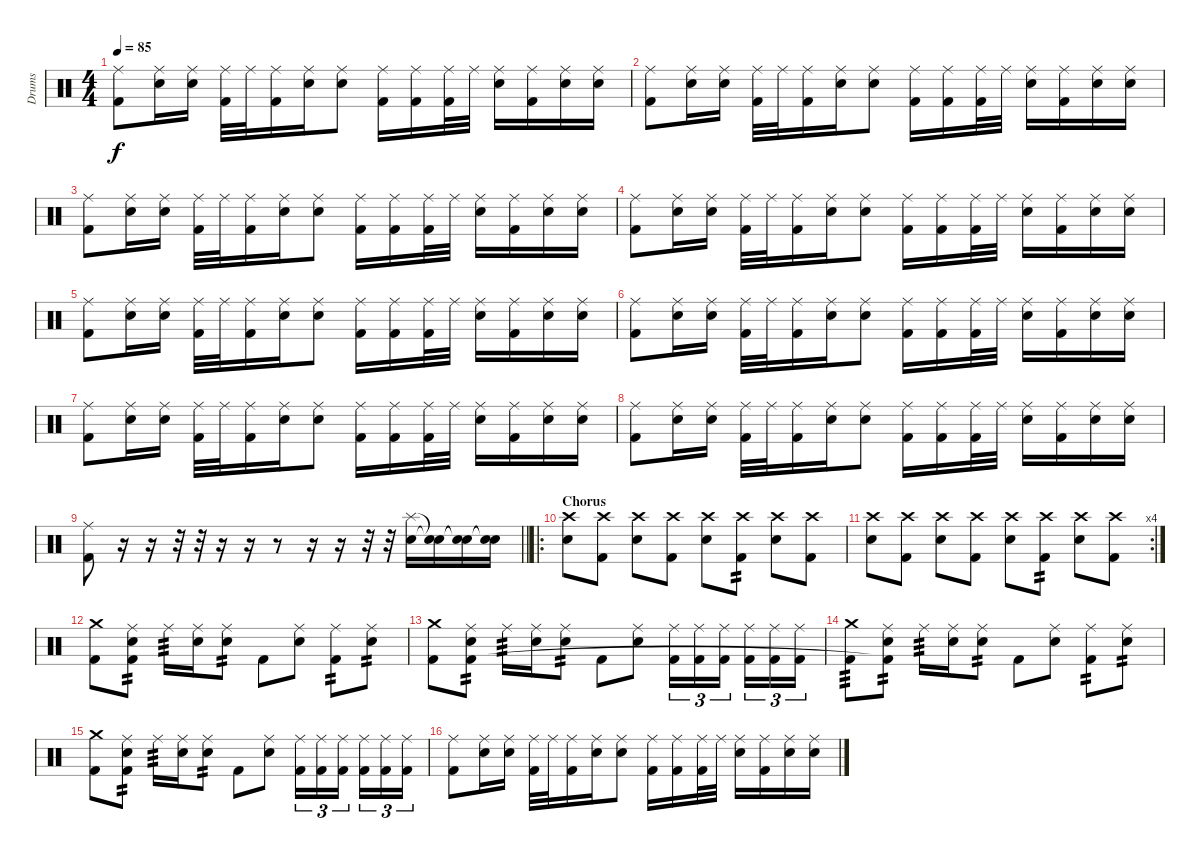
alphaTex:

\track ("Drums" "Drums") {instrument percussion}
\staff {score}
\articulation defaults
\ts (4 4)
\tempo 85
\clef neutral
\ks c
("Ride (middle)" "Kick (hit) 2").8{dy f} ("Ride (middle)" "Electric Snare (hit)").16 ("Ride (middle)" "Electric Snare (hit)").16 ("Ride (middle)" "Kick (hit) 2").32 "Ride (middle)".32 ("Ride (middle)" "Kick (hit) 2").16 ("Ride (middle)" "Electric Snare (hit)").16 ("Ride (middle)" "Electric Snare (hit)").8 ("Ride (middle)" "Kick (hit) 2").16 ("Ride (middle)" "Kick (hit) 2").16 ("Ride (middle)" "Kick (hit) 2").32 "Ride (middle)".32 ("Ride (middle)" "Electric Snare (hit)").16 ("Ride (middle)" "Kick (hit) 2").16 ("Ride (middle)" "Electric Snare (hit)").16 ("Ride (middle)" "Electric Snare (hit)").16 |
("Ride (middle)" "Kick (hit) 2").8 ("Ride (middle)" "Electric Snare (hit)").16 ("Ride (middle)" "Electric Snare (hit)").16 ("Ride (middle)" "Kick (hit) 2").32 "Ride (middle)".32 ("Ride (middle)" "Kick (hit) 2").16 ("Ride (middle)" "Electric Snare (hit)").16 ("Ride (middle)" "Electric Snare (hit)").8 ("Ride (middle)" "Kick (hit) 2").16 ("Ride (middle)" "Kick (hit) 2").16 ("Ride (middle)" "Kick (hit) 2").32 "Ride (middle)".32 ("Ride (middle)" "Electric Snare (hit)").16 ("Ride (middle)" "Kick (hit) 2").16 ("Ride (middle)" "Electric Snare (hit)").16 ("Ride (middle)" "Electric Snare (hit)").16 |
("Ride (middle)" "Kick (hit) 2").8 ("Ride (middle)" "Electric Snare (hit)").16 ("Ride (middle)" "Electric Snare (hit)").16 ("Ride (middle)" "Kick (hit) 2").32 "Ride (middle)".32 ("Ride (middle)" "Kick (hit) 2").16 ("Ride (middle)" "Electric Snare (hit)").16 ("Ride (middle)" "Electric Snare (hit)").8 ("Ride (middle)" "Kick (hit) 2").16 ("Ride (middle)" "Kick (hit) 2").16 ("Ride (middle)" "Kick (hit) 2").32 "Ride (middle)".32 ("Ride (middle)" "Electric Snare (hit)").16 ("Ride (middle)" "Kick (hit) 2").16 ("Ride (middle)" "Electric Snare (hit)").16 ("Ride (middle)" "Electric Snare (hit)").16 |
("Ride (middle)" "Kick (hit) 2").8 ("Ride (middle)" "Electric Snare (hit)").16 ("Ride (middle)" "Electric Snare (hit)").16 ("Ride (middle)" "Kick (hit) 2").32 "Ride (middle)".32 ("Ride (middle)" "Kick (hit) 2").16 ("Ride (middle)" "Electric Snare (hit)").16 ("Ride (middle)" "Electric Snare (hit)").8 ("Ride (middle)" "Kick (hit) 2").16 ("Ride (middle)" "Kick (hit) 2").16 ("Ride (middle)" "Kick (hit) 2").32 "Ride (middle)".32 ("Ride (middle)" "Electric Snare (hit)").16 ("Ride (middle)" "Kick (hit) 2").16 ("Ride (middle)" "Electric Snare (hit)").16 ("Ride (middle)" "Electric Snare (hit)").16 |
("Ride (middle)" "Kick (hit) 2").8 ("Ride (middle)" "Electric Snare (hit)").16 ("Ride (middle)" "Electric Snare (hit)").16 ("Ride (middle)" "Kick (hit) 2").32 "Ride (middle)".32 ("Ride (middle)" "Kick (hit) 2").16 ("Ride (middle)" "Electric Snare (hit)").16 ("Ride (middle)" "Electric Snare (hit)").8 ("Ride (middle)" "Kick (hit) 2").16 ("Ride (middle)" "Kick (hit) 2").16 ("Ride (middle)" "Kick (hit) 2").32 "Ride (middle)".32 ("Ride (middle)" "Electric Snare (hit)").16 ("Ride (middle)" "Kick (hit) 2").16 ("Ride (middle)" "Electric Snare (hit)").16 ("Ride (middle)" "Electric Snare (hit)").16 |
("Ride (middle)" "Kick (hit) 2").8 ("Ride (middle)" "Electric Snare (hit)").16 ("Ride (middle)" "Electric Snare (hit)").16 ("Ride (middle)" "Kick (hit) 2").32 "Ride (middle)".32 ("Ride (middle)" "Kick (hit) 2").16 ("Ride (middle)" "Electric Snare (hit)").16 ("Ride (middle)" "Electric Snare (hit)").8 ("Ride (middle)" "Kick (hit) 2").16 ("Ride (middle)" "Kick (hit) 2").16 ("Ride (middle)" "Kick (hit) 2").32 "Ride (middle)".32 ("Ride (middle)" "Electric Snare (hit)").16 ("Ride (middle)" "Kick (hit) 2").16 ("Ride (middle)" "Electric Snare (hit)").16 ("Ride (middle)" "Electric Snare (hit)").16 |
("Ride (middle)" "Kick (hit) 2").8 ("Ride (middle)" "Electric Snare (hit)").16 ("Ride (middle)" "Electric Snare (hit)").16 ("Ride (middle)" "Kick (hit) 2").32 "Ride (middle)".32 ("Ride (middle)" "Kick (hit) 2").16 ("Ride (middle)" "Electric Snare (hit)").16 ("Ride (middle)" "Electric Snare (hit)").8 ("Ride (middle)" "Kick (hit) 2").16 ("Ride (middle)" "Kick (hit) 2").16 ("Ride (middle)" "Kick (hit) 2").32 "Ride (middle)".32 ("Ride (middle)" "Electric Snare (hit)").16 ("Ride (middle)" "Kick (hit) 2").16 ("Ride (middle)" "Electric Snare (hit)").16 ("Ride (middle)" "Electric Snare (hit)").16 |
("Ride (middle)" "Kick (hit) 2").8 ("Ride (middle)" "Electric Snare (hit)").16 ("Ride (middle)" "Electric Snare (hit)").16 ("Ride (middle)" "Kick (hit) 2").32 "Ride (middle)".32 ("Ride (middle)" "Kick (hit) 2").16 ("Ride (middle)" "Electric Snare (hit)").16 ("Ride (middle)" "Electric Snare (hit)").8 ("Ride (middle)" "Kick (hit) 2").16 ("Ride (middle)" "Kick (hit) 2").16 ("Ride (middle)" "Kick (hit) 2").32 "Ride (middle)".32 ("Ride (middle)" "Electric Snare (hit)").16 ("Ride (middle)" "Kick (hit) 2").16 ("Ride (middle)" "Electric Snare (hit)").16 ("Ride (middle)" "Electric Snare (hit)").16 |
\barLineRight lightlight
("Ride (middle)" "Kick (hit) 2").8 r.16 r.16 r.32 r.32 r.16 r.16 r.8 r.16 r.16 r.32 r.32 ("Splash (hit)" "Electric Snare (hit)").16 ("Snare (hit)"{t} "Snare (hit)"{t}).16 ("Snare (hit)"{t} "Electric Snare (hit)"{t}).16 ("Snare (hit)"{t} "Snare (hit)"{t}).16 |
\ro
\section ("" "Chorus")
("Crash high (hit)" "Electric Snare (hit)").8 ("Crash high (hit)" "Kick (hit) 2").8 ("Crash high (hit)" "Electric Snare (hit)").8 ("Crash high (hit)" "Kick (hit) 2").8 ("Crash high (hit)" "Electric Snare (hit)").8 ("Crash high (hit)" "Kick (hit) 2").8{tp 2} ("Crash high (hit)" "Electric Snare (hit)").8 ("Crash high (hit)" "Kick (hit) 2").8 |
\rc 4
("Crash high (hit)" "Electric Snare (hit)").8 ("Crash high (hit)" "Kick (hit) 2").8 ("Crash high (hit)" "Electric Snare (hit)").8 ("Crash high (hit)" "Kick (hit) 2").8 ("Crash high (hit)" "Electric Snare (hit)").8 ("Crash high (hit)" "Kick (hit) 2").8{tp 2} ("Crash high (hit)" "Electric Snare (hit)").8 ("Crash high (hit)" "Kick (hit) 2").8 |
("Crash medium (hit)" "Kick (hit) 2").8 ("Ride (middle)" "Electric Snare (hit)" "Kick (hit) 2").8{tp 2} "Ride (middle)".16{tp 3} ("Ride (middle)" "Electric Snare (hit)").16 ("Ride (middle)" "Electric Snare (hit)").8{tp 2} "Kick (hit) 2".8 ("Ride (middle)" "Electric Snare (hit)").8 ("Ride (middle)" "Kick (hit) 2").8{tp 2} ("Ride (middle)" "Electric Snare (hit)").8{tp 2} |
("Crash medium (hit)" "Kick (hit) 2").8 ("Ride (middle)" "Electric Snare (hit)" "Kick (hit) 2").8{tp 2} "Ride (middle)".16{tp 3} ("Ride (middle)" "Electric Snare (hit)").16 ("Ride (middle)" "Electric Snare (hit)").8{tp 2} "Kick (hit) 2".8 ("Ride (middle)" "Electric Snare (hit)").8 ("Ride (middle)" "Kick (hit) 2").16{tu (3 2)} ("Ride (middle)" "Kick (hit) 2").16{tu (3 2)} ("Ride (middle)" "Kick (hit) 2").16{tu (3 2) beam splitsecondary} ("Ride (middle)" "Kick (hit) 2").16{tu (3 2)} ("Ride (middle)" "Kick (hit) 2").16{tu (3 2)} ("Ride (middle)" "Kick (hit) 2").16{tu (3 2)} |
("Crash medium (hit)" "Kick (hit) 2").8{tp 3} ("Ride (middle)" "Electric Snare (hit)" "Kick (hit) 2"{t}).8{tp 2} "Ride (middle)".16{tp 3} ("Ride (middle)" "Electric Snare (hit)").16 ("Ride (middle)" "Electric Snare (hit)").8{tp 2} "Kick (hit) 2".8 ("Ride (middle)" "Electric Snare (hit)").8 ("Ride (middle)" "Kick (hit) 2").8{tp 2} ("Ride (middle)" "Electric Snare (hit)").8{tp 2} |
("Crash medium (hit)" "Kick (hit) 2").8 ("Ride (middle)" "Electric Snare (hit)" "Kick (hit) 2").8{tp 2} "Ride (middle)".16{tp 3} ("Ride (middle)" "Electric Snare (hit)").16 ("Ride (middle)" "Electric Snare (hit)").8{tp 2} "Kick (hit) 2".8 ("Ride (middle)" "Electric Snare (hit)").8 ("Ride (middle)" "Kick (hit) 2").16{tu (3 2)} ("Ride (middle)" "Kick (hit) 2").16{tu (3 2)} ("Ride (middle)" "Kick (hit) 2").16{tu (3 2) beam splitsecondary} ("Ride (middle)" "Kick (hit) 2").16{tu (3 2)} ("Ride (middle)" "Kick (hit) 2").16{tu (3 2)} ("Ride (middle)" "Kick (hit) 2").16{tu (3 2)} |
("Ride (middle)" "Kick (hit) 2").8 ("Ride (middle)" "Electric Snare (hit)").16 ("Ride (middle)" "Electric Snare (hit)").16 ("Ride (middle)" "Kick (hit) 2").32 "Ride (middle)".32 ("Ride (middle)" "Kick (hit) 2").16 ("Ride (middle)" "Electric Snare (hit)").16 ("Ride (middle)" "Electric Snare (hit)").8 ("Ride (middle)" "Kick (hit) 2").16 ("Ride (middle)" "Kick (hit) 2").16 ("Ride (middle)" "Kick (hit) 2").32 "Ride (middle)".32 ("Ride (middle)" "Electric Snare (hit)").16 ("Ride (middle)" "Kick (hit) 2").16 ("Ride (middle)" "Electric Snare (hit)").16 ("Ride (middle)" "Electric Snare (hit)").16
